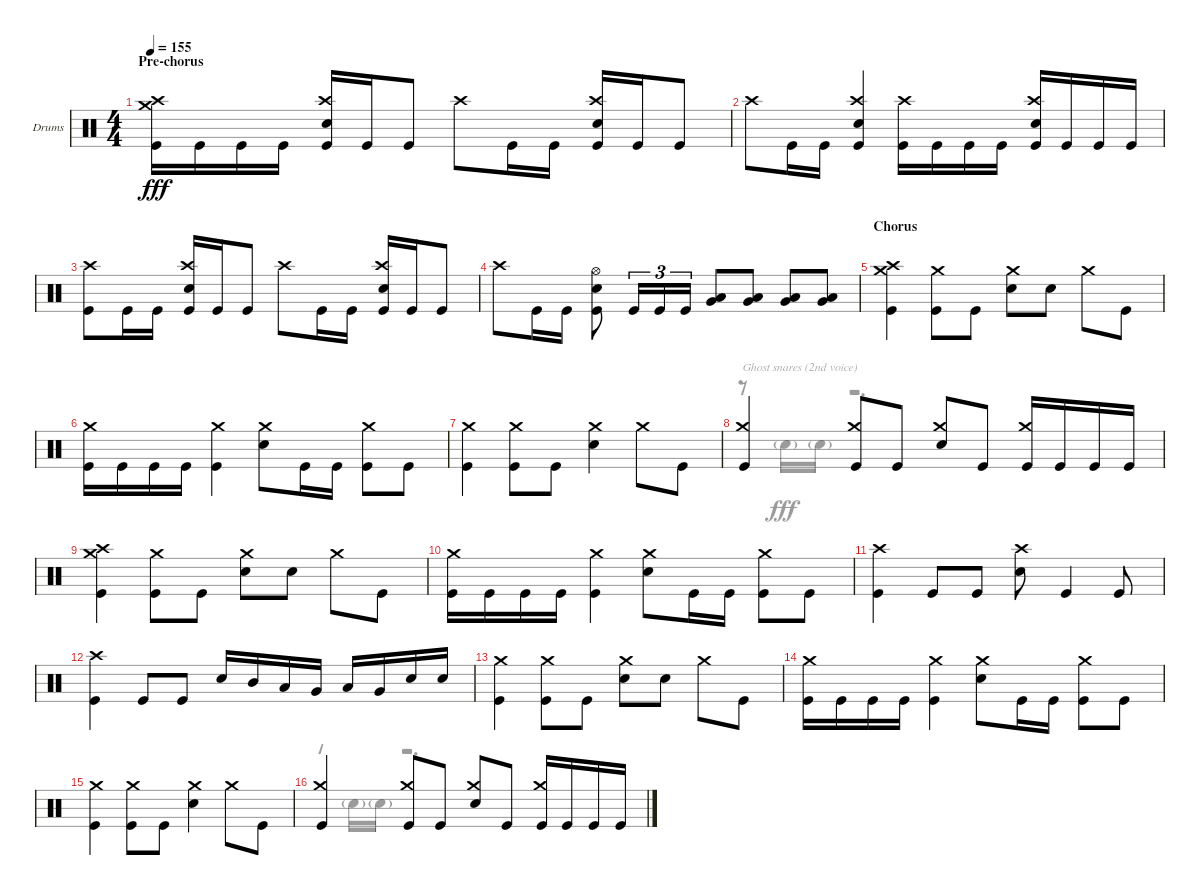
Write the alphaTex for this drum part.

\defaultSystemsLayout 4
\bracketExtendMode groupsimilarinstruments
\firstSystemTrackNameOrientation horizontal
\otherSystemsTrackNameOrientation horizontal
\track ("Alex Rudinger" "Drums") {instrument percussion}
\staff {score}
\articulation defaults
\voice
\ts (4 4)
\section ("" "Pre-chorus")
\tempo 155
\clef neutral
\ks c
("Kick (hit)" "Crash high (hit)" "Crash medium (hit)").16{dy fff} "Kick (hit)".16 "Kick (hit)".16 "Kick (hit)".16 ("Kick (hit)" "Snare (hit) 2" "Crash high (hit)").16 "Kick (hit)".16 "Kick (hit)".8 "Crash high (hit)".8 "Kick (hit)".16 "Kick (hit)".16 ("Kick (hit)" "Snare (hit) 2" "Crash high (hit)").16 "Kick (hit)".16 "Kick (hit)".8 |
"Crash high (hit)".8 "Kick (hit)".16 "Kick (hit)".16 ("Kick (hit)" "Snare (hit) 2" "Crash high (hit)").4 ("Kick (hit)" "Crash high (hit)").16 "Kick (hit)".16 "Kick (hit)".16 "Kick (hit)".16 ("Kick (hit)" "Snare (hit) 2" "Crash high (hit)").16 "Kick (hit)".16 "Kick (hit)".16 "Kick (hit)".16 |
("Kick (hit)" "Crash high (hit)").8 "Kick (hit)".16 "Kick (hit)".16 ("Kick (hit)" "Snare (hit) 2" "Crash high (hit)").16 "Kick (hit)".16 "Kick (hit)".8 "Crash high (hit)".8 "Kick (hit)".16 "Kick (hit)".16 ("Snare (hit) 2" "Kick (hit)" "Crash high (hit)").16 "Kick (hit)".16 "Kick (hit)".8 |
"Crash high (hit)".8 "Kick (hit)".16 "Kick (hit)".16 ("Snare (hit) 2" "Kick (hit)" "Hi-Hat (open)").8 "Kick (hit)".16{tu (3 2)} "Kick (hit)".16{tu (3 2)} "Kick (hit)".16{tu (3 2)} ("Very Low Tom (hit)" "Low Tom (hit)").8 ("Very Low Tom (hit)" "Low Tom (hit)").8 ("Very Low Tom (hit)" "Low Tom (hit)").8 ("Very Low Tom (hit)" "Low Tom (hit)").8 |
\section ("" "Chorus")
("Kick (hit)" "Crash high (hit)" "Crash medium (hit)").4 ("Kick (hit)" "Crash medium (hit)").8 "Kick (hit)".8 ("Snare (hit) 2" "Crash medium (hit)").8 "Snare (hit) 2".8 "Crash medium (hit)".8 "Kick (hit)".8 |
("Kick (hit)" "Crash medium (hit)").16 "Kick (hit)".16 "Kick (hit)".16 "Kick (hit)".16 ("Kick (hit)" "Crash medium (hit)").4 ("Snare (hit) 2" "Crash medium (hit)").8 "Kick (hit)".16 "Kick (hit)".16 ("Kick (hit)" "Crash medium (hit)").8 "Kick (hit)".8 |
("Kick (hit)" "Crash medium (hit)").4 ("Kick (hit)" "Crash medium (hit)").8 "Kick (hit)".8 ("Snare (hit) 2" "Crash medium (hit)").4 "Crash medium (hit)".8 "Kick (hit)".8 |
("Kick (hit)" "Crash medium (hit)").4 ("Kick (hit)" "Crash medium (hit)").8 "Kick (hit)".8 ("Snare (hit) 2" "Crash medium (hit)").8 "Kick (hit)".8 ("Kick (hit)" "Crash medium (hit)").16 "Kick (hit)".16 "Kick (hit)".16 "Kick (hit)".16 |
("Kick (hit)" "Crash high (hit)" "Crash medium (hit)").4 ("Kick (hit)" "Crash medium (hit)").8 "Kick (hit)".8 ("Snare (hit) 2" "Crash medium (hit)").8 "Snare (hit) 2".8 "Crash medium (hit)".8 "Kick (hit)".8 |
("Kick (hit)" "Crash medium (hit)").16 "Kick (hit)".16 "Kick (hit)".16 "Kick (hit)".16 ("Kick (hit)" "Crash medium (hit)").4 ("Snare (hit) 2" "Crash medium (hit)").8 "Kick (hit)".16 "Kick (hit)".16 ("Kick (hit)" "Crash medium (hit)").8 "Kick (hit)".8 |
("Kick (hit)" "Crash high (hit)").4 "Kick (hit)".8 "Kick (hit)".8 ("Snare (hit) 2" "Crash high (hit)").8 "Kick (hit)".4 "Kick (hit)".8 |
("Kick (hit)" "Crash high (hit)").4 "Kick (hit)".8 "Kick (hit)".8 "Snare (hit) 2".16 "Mid Tom (hit)".16 "Low Tom (hit)".16 "Very Low Tom (hit)".16 "Low Tom (hit)".16 "Very Low Tom (hit)".16 "Snare (hit) 2".16 "Snare (hit) 2".16 |
("Kick (hit)" "Crash medium (hit)").4 ("Kick (hit)" "Crash medium (hit)").8 "Kick (hit)".8 ("Snare (hit) 2" "Crash medium (hit)").8 "Snare (hit) 2".8 "Crash medium (hit)".8 "Kick (hit)".8 |
("Kick (hit)" "Crash medium (hit)").16 "Kick (hit)".16 "Kick (hit)".16 "Kick (hit)".16 ("Kick (hit)" "Crash medium (hit)").4 ("Snare (hit) 2" "Crash medium (hit)").8 "Kick (hit)".16 "Kick (hit)".16 ("Kick (hit)" "Crash medium (hit)").8 "Kick (hit)".8 |
("Kick (hit)" "Crash medium (hit)").4 ("Kick (hit)" "Crash medium (hit)").8 "Kick (hit)".8 ("Snare (hit) 2" "Crash medium (hit)").4 "Crash medium (hit)".8 "Kick (hit)".8 |
("Kick (hit)" "Crash medium (hit)").4 ("Kick (hit)" "Crash medium (hit)").8 "Kick (hit)".8 ("Snare (hit) 2" "Crash medium (hit)").8 "Kick (hit)".8 ("Kick (hit)" "Crash medium (hit)").16 "Kick (hit)".16 "Kick (hit)".16 "Kick (hit)".16
\voice
\clef neutral
\ottava regular
\simile none
\ks c
|
|
|
|
|
|
|
r.8{txt "Ghost snares (2nd voice)"} "Snare (hit) 2"{g}.16 "Snare (hit) 2"{g}.16 r.2{d} |
|
|
|
|
|
|
|
r.8 "Snare (hit) 2"{g}.16 "Snare (hit) 2"{g}.16 r.2{d}
